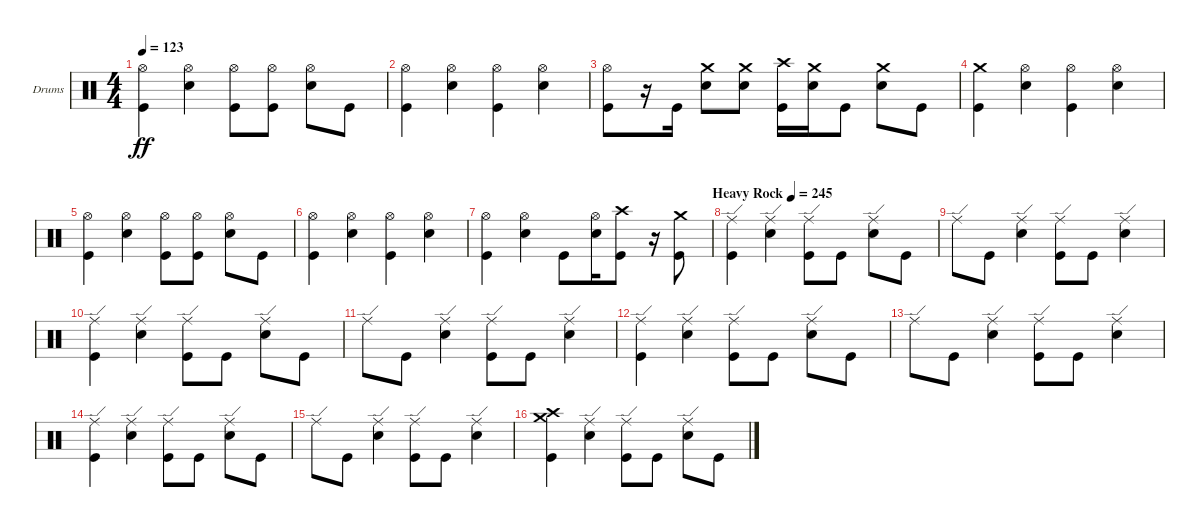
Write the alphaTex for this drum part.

\bracketExtendMode groupsimilarinstruments
\firstSystemTrackNameOrientation horizontal
\otherSystemsTrackNameOrientation horizontal
\track ("Drumkit" "Drums") {instrument percussion}
\staff {score}
\articulation defaults
\ts (4 4)
\tempo 123
\clef neutral
\ks c
("Kick (hit)" "Hi-Hat (open)").4{dy ff} ("Snare (hit) 2" "Hi-Hat (open)").4 ("Kick (hit)" "Hi-Hat (open)").8 ("Kick (hit)" "Hi-Hat (open)").8 ("Snare (hit) 2" "Hi-Hat (open)").8 "Kick (hit)".8 |
("Kick (hit)" "Hi-Hat (open)").4 ("Snare (hit) 2" "Hi-Hat (open)").4 ("Kick (hit)" "Hi-Hat (open)").4 ("Snare (hit) 2" "Hi-Hat (open)").4 |
("Kick (hit)" "Hi-Hat (open)").8 r.16 "Kick (hit)".16 ("Snare (hit) 2" "Crash medium (hit)").8 ("Snare (hit) 2" "Crash medium (hit)").8 ("Kick (hit)" "Crash high (hit)").16 ("Snare (hit) 2" "Crash medium (hit)").16 "Kick (hit)".8 ("Snare (hit) 2" "Crash medium (hit)").8 "Kick (hit)".8 |
("Crash medium (hit)" "Kick (hit)").4 ("Snare (hit) 2" "Hi-Hat (open)").4 ("Kick (hit)" "Hi-Hat (open)").4 ("Snare (hit) 2" "Hi-Hat (open)").4 |
("Kick (hit)" "Hi-Hat (open)").4 ("Snare (hit) 2" "Hi-Hat (open)").4 ("Kick (hit)" "Hi-Hat (open)").8 ("Kick (hit)" "Hi-Hat (open)").8 ("Snare (hit) 2" "Hi-Hat (open)").8 "Kick (hit)".8 |
("Kick (hit)" "Hi-Hat (open)").4 ("Snare (hit) 2" "Hi-Hat (open)").4 ("Kick (hit)" "Hi-Hat (open)").4 ("Snare (hit) 2" "Hi-Hat (open)").4 |
\tempo (245 "Heavy Rock" 1)
("Kick (hit)" "Hi-Hat (open)").4 ("Snare (hit) 2" "Hi-Hat (open)").4 "Kick (hit)".8 ("Snare (hit) 2" "Hi-Hat (open)").16 ("Kick (hit)" "Crash high (hit)").8 r.16 ("Kick (hit)" "Crash medium (hit)").8 |
("Kick (hit)" "Ride (edge)").4 ("Snare (hit) 2" "Ride (edge)").4 ("Kick (hit)" "Ride (edge)").8 "Kick (hit)".8 ("Snare (hit) 2" "Ride (edge)").8 "Kick (hit)".8 |
"Ride (edge)".8 "Kick (hit)".8 ("Snare (hit) 2" "Ride (edge)").4 ("Kick (hit)" "Ride (edge)").8 "Kick (hit)".8 ("Snare (hit) 2" "Ride (edge)").4 |
("Kick (hit)" "Ride (edge)").4 ("Snare (hit) 2" "Ride (edge)").4 ("Kick (hit)" "Ride (edge)").8 "Kick (hit)".8 ("Snare (hit) 2" "Ride (edge)").8 "Kick (hit)".8 |
"Ride (edge)".8 "Kick (hit)".8 ("Snare (hit) 2" "Ride (edge)").4 ("Kick (hit)" "Ride (edge)").8 "Kick (hit)".8 ("Snare (hit) 2" "Ride (edge)").4 |
("Kick (hit)" "Ride (edge)").4 ("Snare (hit) 2" "Ride (edge)").4 ("Kick (hit)" "Ride (edge)").8 "Kick (hit)".8 ("Snare (hit) 2" "Ride (edge)").8 "Kick (hit)".8 |
"Ride (edge)".8 "Kick (hit)".8 ("Snare (hit) 2" "Ride (edge)").4 ("Kick (hit)" "Ride (edge)").8 "Kick (hit)".8 ("Snare (hit) 2" "Ride (edge)").4 |
("Kick (hit)" "Ride (edge)").4 ("Snare (hit) 2" "Ride (edge)").4 ("Kick (hit)" "Ride (edge)").8 "Kick (hit)".8 ("Snare (hit) 2" "Ride (edge)").8 "Kick (hit)".8 |
"Ride (edge)".8 "Kick (hit)".8 ("Snare (hit) 2" "Ride (edge)").4 ("Kick (hit)" "Ride (edge)").8 "Kick (hit)".8 ("Snare (hit) 2" "Ride (edge)").4 |
("Kick (hit)" "Crash high (hit)" "Crash medium (hit)").4 ("Snare (hit) 2" "Ride (edge)").4 ("Kick (hit)" "Ride (edge)").8 "Kick (hit)".8 ("Snare (hit) 2" "Ride (edge)").8 "Kick (hit)".8
